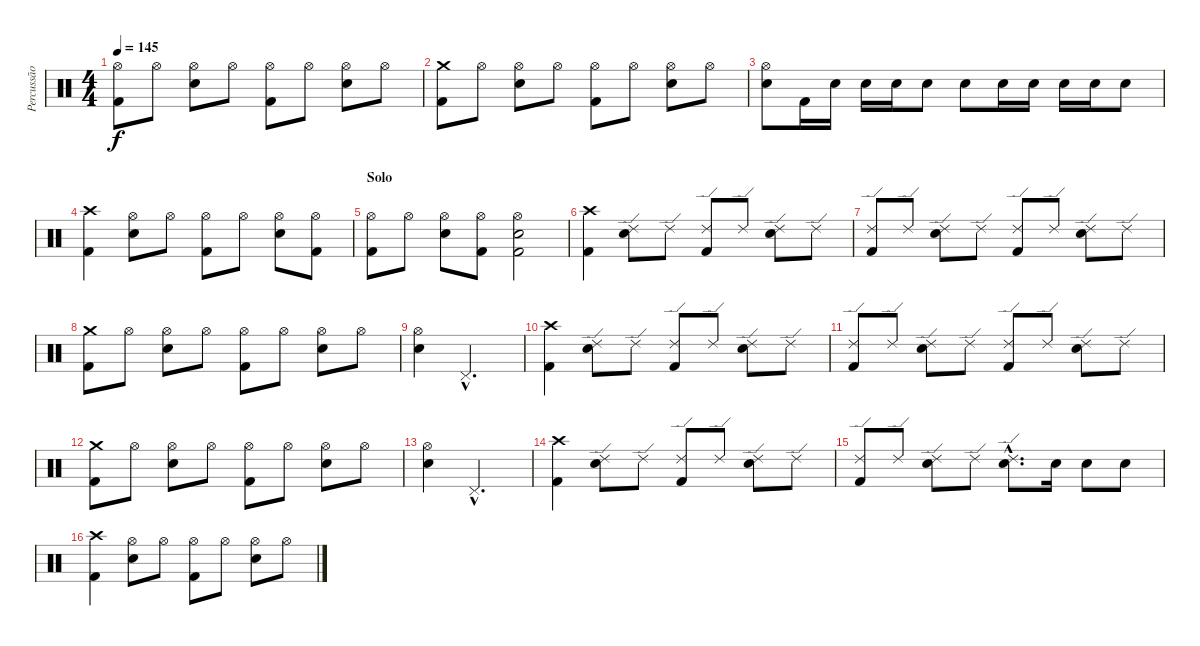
\track ("Percussão" "Percussão") {instrument percussion}
\staff {score}
\articulation defaults
\ts (4 4)
\tempo 145
\clef neutral
\ks c
("Hi-Hat (open)" "Kick (hit) 2").8{dy f} "Hi-Hat (open)".8 ("Hi-Hat (open)" "Electric Snare (hit)").8 "Hi-Hat (open)".8 ("Hi-Hat (open)" "Kick (hit) 2").8 "Hi-Hat (open)".8 ("Hi-Hat (open)" "Electric Snare (hit)").8 "Hi-Hat (open)".8 |
("Crash medium (hit)" "Kick (hit) 2").8 "Hi-Hat (open)".8 ("Hi-Hat (open)" "Electric Snare (hit)").8 "Hi-Hat (open)".8 ("Hi-Hat (open)" "Kick (hit) 2").8 "Hi-Hat (open)".8 ("Hi-Hat (open)" "Electric Snare (hit)").8 "Hi-Hat (open)".8 |
("Hi-Hat (open)" "Electric Snare (hit)").8 "Kick (hit) 2".16 "Electric Snare (hit)".16 "Electric Snare (hit)".16 "Electric Snare (hit)".16 "Electric Snare (hit)".8 "Electric Snare (hit)".8 "Electric Snare (hit)".16 "Electric Snare (hit)".16 "Electric Snare (hit)".16 "Electric Snare (hit)".16 "Electric Snare (hit)".8 |
("Crash high (hit)" "Kick (hit) 2").4 ("Hi-Hat (open)" "Electric Snare (hit)").8 "Hi-Hat (open)".8 ("Hi-Hat (open)" "Kick (hit) 2").8 "Hi-Hat (open)".8 ("Hi-Hat (open)" "Electric Snare (hit)").8 ("Hi-Hat (open)" "Kick (hit) 2").8 |
\section ("" "Solo ")
("Hi-Hat (open)" "Kick (hit) 2").8 "Hi-Hat (open)".8 ("Hi-Hat (open)" "Electric Snare (hit)").8 ("Hi-Hat (open)" "Kick (hit) 2").8 ("Hi-Hat (open)" "Electric Snare (hit)" "Kick (hit) 2").2 |
("Crash high (hit)" "Kick (hit) 2").4 ("Ride (edge) 2" "Electric Snare (hit)").8 "Ride (edge) 2".8 ("Ride (edge) 2" "Kick (hit) 2").8 "Ride (edge) 2".8 ("Ride (edge) 2" "Electric Snare (hit)").8 "Ride (edge) 2".8 |
("Ride (edge) 2" "Kick (hit) 2").8 "Ride (edge) 2".8 ("Ride (edge) 2" "Electric Snare (hit)").8 "Ride (edge) 2".8 ("Ride (edge) 2" "Kick (hit) 2").8 "Ride (edge) 2".8 ("Ride (edge) 2" "Electric Snare (hit)").8 "Ride (edge) 2".8 |
("Crash medium (hit)" "Kick (hit) 2").8 "Hi-Hat (open)".8 ("Hi-Hat (open)" "Electric Snare (hit)").8 "Hi-Hat (open)".8 ("Hi-Hat (open)" "Kick (hit) 2").8 "Hi-Hat (open)".8 ("Hi-Hat (open)" "Electric Snare (hit)").8 "Hi-Hat (open)".8 |
("Hi-Hat (open)" "Electric Snare (hit)").4 "Pedal Hi-Hat (hit)"{hac}.2{d} |
("Crash high (hit)" "Kick (hit) 2").4 ("Ride (edge) 2" "Electric Snare (hit)").8 "Ride (edge) 2".8 ("Ride (edge) 2" "Kick (hit) 2").8 "Ride (edge) 2".8 ("Ride (edge) 2" "Electric Snare (hit)").8 "Ride (edge) 2".8 |
("Ride (edge) 2" "Kick (hit) 2").8 "Ride (edge) 2".8 ("Ride (edge) 2" "Electric Snare (hit)").8 "Ride (edge) 2".8 ("Ride (edge) 2" "Kick (hit) 2").8 "Ride (edge) 2".8 ("Ride (edge) 2" "Electric Snare (hit)").8 "Ride (edge) 2".8 |
("Crash medium (hit)" "Kick (hit) 2").8 "Hi-Hat (open)".8 ("Hi-Hat (open)" "Electric Snare (hit)").8 "Hi-Hat (open)".8 ("Hi-Hat (open)" "Kick (hit) 2").8 "Hi-Hat (open)".8 ("Hi-Hat (open)" "Electric Snare (hit)").8 "Hi-Hat (open)".8 |
("Hi-Hat (open)" "Electric Snare (hit)").4 "Pedal Hi-Hat (hit)"{hac}.2{d} |
("Crash high (hit)" "Kick (hit) 2").4 ("Ride (edge) 2" "Electric Snare (hit)").8 "Ride (edge) 2".8 ("Ride (edge) 2" "Kick (hit) 2").8 "Ride (edge) 2".8 ("Ride (edge) 2" "Electric Snare (hit)").8 "Ride (edge) 2".8 |
("Ride (edge) 2" "Kick (hit) 2").8 "Ride (edge) 2".8 ("Ride (edge) 2" "Electric Snare (hit)").8 "Ride (edge) 2".8 ("Ride (edge) 2"{hac} "Electric Snare (hit)"{hac}).8{d} "Electric Snare (hit)".16 "Electric Snare (hit)".8 "Electric Snare (hit)".8 |
("Crash high (hit)" "Kick (hit) 2").4 ("Hi-Hat (open)" "Electric Snare (hit)").8 "Hi-Hat (open)".8 ("Hi-Hat (open)" "Kick (hit) 2").8 "Hi-Hat (open)".8 ("Hi-Hat (open)" "Electric Snare (hit)").8 "Hi-Hat (open)".8
